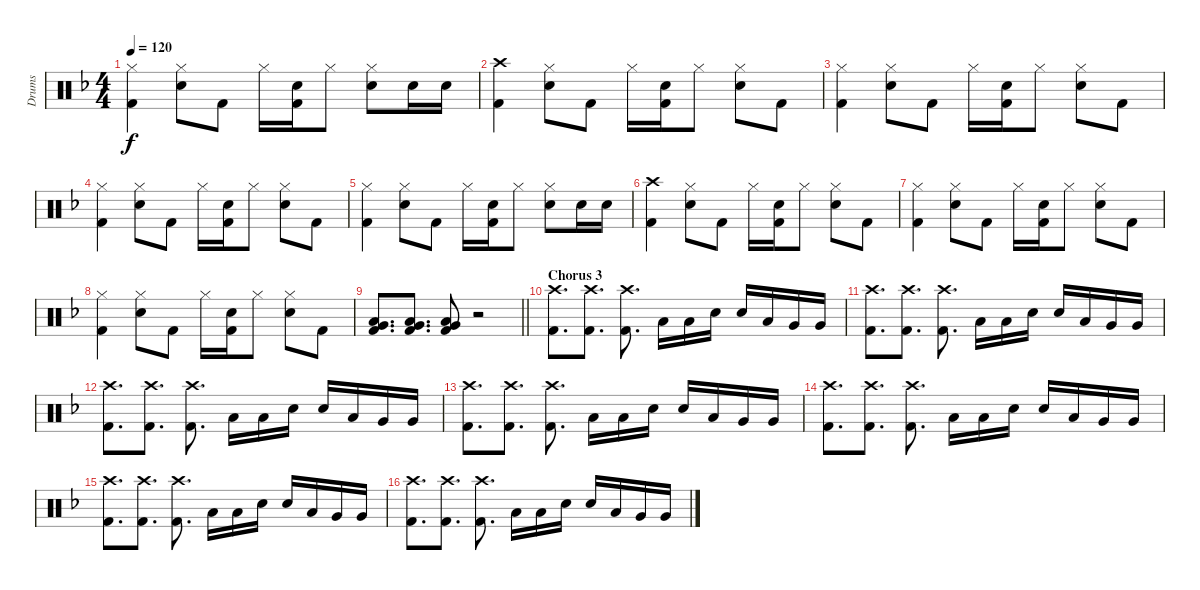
\track ("Drums" "Drums") {instrument percussion}
\staff {score}
\articulation defaults
\ts (4 4)
\tempo 120
\clef neutral
\ks f
("Hi-Hat (closed)" "Kick (hit) 2").4{dy f} ("Hi-Hat (closed)" "Snare (hit) 2").8 "Kick (hit) 2".8 "Hi-Hat (closed)".16 ("Snare (hit) 2" "Kick (hit) 2").16 "Hi-Hat (closed)".8 ("Hi-Hat (closed)" "Snare (hit) 2").8 "Snare (hit) 2".16 "Snare (hit) 2".16 |
("Crash high (hit)" "Kick (hit) 2").4 ("Hi-Hat (closed)" "Snare (hit) 2").8 "Kick (hit) 2".8 "Hi-Hat (closed)".16 ("Snare (hit) 2" "Kick (hit) 2").16 "Hi-Hat (closed)".8 ("Hi-Hat (closed)" "Snare (hit) 2").8 "Kick (hit) 2".8 |
("Hi-Hat (closed)" "Kick (hit) 2").4 ("Hi-Hat (closed)" "Snare (hit) 2").8 "Kick (hit) 2".8 "Hi-Hat (closed)".16 ("Snare (hit) 2" "Kick (hit) 2").16 "Hi-Hat (closed)".8 ("Hi-Hat (closed)" "Snare (hit) 2").8 "Kick (hit) 2".8 |
("Hi-Hat (closed)" "Kick (hit) 2").4 ("Hi-Hat (closed)" "Snare (hit) 2").8 "Kick (hit) 2".8 "Hi-Hat (closed)".16 ("Snare (hit) 2" "Kick (hit) 2").16 "Hi-Hat (closed)".8 ("Hi-Hat (closed)" "Snare (hit) 2").8 "Kick (hit) 2".8 |
("Hi-Hat (closed)" "Kick (hit) 2").4 ("Hi-Hat (closed)" "Snare (hit) 2").8 "Kick (hit) 2".8 "Hi-Hat (closed)".16 ("Snare (hit) 2" "Kick (hit) 2").16 "Hi-Hat (closed)".8 ("Hi-Hat (closed)" "Snare (hit) 2").8 "Snare (hit) 2".16 "Snare (hit) 2".16 |
("Crash high (hit)" "Kick (hit) 2").4 ("Hi-Hat (closed)" "Snare (hit) 2").8 "Kick (hit) 2".8 "Hi-Hat (closed)".16 ("Snare (hit) 2" "Kick (hit) 2").16 "Hi-Hat (closed)".8 ("Hi-Hat (closed)" "Snare (hit) 2").8 "Kick (hit) 2".8 |
("Hi-Hat (closed)" "Kick (hit) 2").4 ("Hi-Hat (closed)" "Snare (hit) 2").8 "Kick (hit) 2".8 "Hi-Hat (closed)".16 ("Snare (hit) 2" "Kick (hit) 2").16 "Hi-Hat (closed)".8 ("Hi-Hat (closed)" "Snare (hit) 2").8 "Kick (hit) 2".8 |
("Hi-Hat (closed)" "Kick (hit) 2").4 ("Hi-Hat (closed)" "Snare (hit) 2").8 "Kick (hit) 2".8 "Hi-Hat (closed)".16 ("Snare (hit) 2" "Kick (hit) 2").16 "Hi-Hat (closed)".8 ("Hi-Hat (closed)" "Snare (hit) 2").8 "Kick (hit) 2".8 |
\barLineRight lightlight
("Low Tom (hit)" "Very Low Tom (hit)" "Kick (hit) 2").8{d} ("Low Tom (hit)" "Very Low Tom (hit)" "Kick (hit) 2").8{d} ("Low Tom (hit)" "Very Low Tom (hit)" "Kick (hit) 2").8 r.2 |
\section ("" "Chorus 3")
("Crash high (hit)" "Kick (hit) 2").8{d} ("Crash high (hit)" "Kick (hit) 2").8{d} ("Crash high (hit)" "Kick (hit) 2").8{d} "Low Tom (hit)".16 "Low Tom (hit)".16 "Snare (hit) 2".16 "Snare (hit) 2".16 "Low Tom (hit)".16 "Very Low Tom (hit)".16 "Very Low Tom (hit)".16 |
("Crash high (hit)" "Kick (hit) 2").8{d} ("Crash high (hit)" "Kick (hit) 2").8{d} ("Crash high (hit)" "Kick (hit) 2").8{d} "Low Tom (hit)".16 "Low Tom (hit)".16 "Snare (hit) 2".16 "Snare (hit) 2".16 "Low Tom (hit)".16 "Very Low Tom (hit)".16 "Very Low Tom (hit)".16 |
("Crash high (hit)" "Kick (hit) 2").8{d} ("Crash high (hit)" "Kick (hit) 2").8{d} ("Crash high (hit)" "Kick (hit) 2").8{d} "Low Tom (hit)".16 "Low Tom (hit)".16 "Snare (hit) 2".16 "Snare (hit) 2".16 "Low Tom (hit)".16 "Very Low Tom (hit)".16 "Very Low Tom (hit)".16 |
("Crash high (hit)" "Kick (hit) 2").8{d} ("Crash high (hit)" "Kick (hit) 2").8{d} ("Crash high (hit)" "Kick (hit) 2").8{d} "Low Tom (hit)".16 "Low Tom (hit)".16 "Snare (hit) 2".16 "Snare (hit) 2".16 "Low Tom (hit)".16 "Very Low Tom (hit)".16 "Very Low Tom (hit)".16 |
("Crash high (hit)" "Kick (hit) 2").8{d} ("Crash high (hit)" "Kick (hit) 2").8{d} ("Crash high (hit)" "Kick (hit) 2").8{d} "Low Tom (hit)".16 "Low Tom (hit)".16 "Snare (hit) 2".16 "Snare (hit) 2".16 "Low Tom (hit)".16 "Very Low Tom (hit)".16 "Very Low Tom (hit)".16 |
("Crash high (hit)" "Kick (hit) 2").8{d} ("Crash high (hit)" "Kick (hit) 2").8{d} ("Crash high (hit)" "Kick (hit) 2").8{d} "Low Tom (hit)".16 "Low Tom (hit)".16 "Snare (hit) 2".16 "Snare (hit) 2".16 "Low Tom (hit)".16 "Very Low Tom (hit)".16 "Very Low Tom (hit)".16 |
("Crash high (hit)" "Kick (hit) 2").8{d} ("Crash high (hit)" "Kick (hit) 2").8{d} ("Crash high (hit)" "Kick (hit) 2").8{d} "Low Tom (hit)".16 "Low Tom (hit)".16 "Snare (hit) 2".16 "Snare (hit) 2".16 "Low Tom (hit)".16 "Very Low Tom (hit)".16 "Very Low Tom (hit)".16
